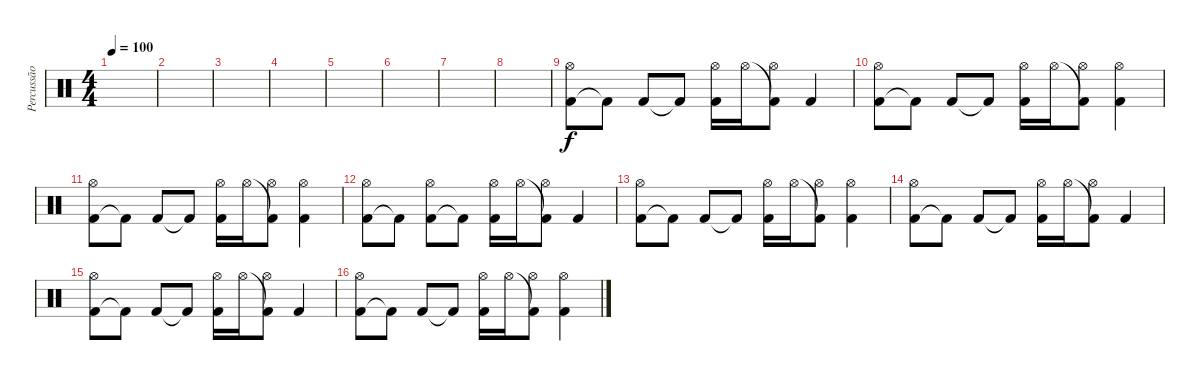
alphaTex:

\track ("Percussão" "Percussão") {instrument percussion}
\staff {score}
\articulation defaults
\ts (4 4)
\tempo 100
\clef neutral
\ks c
|
|
|
|
|
|
|
|
("Kick (hit) 2" "Hi-Hat (open)").8 "Kick (hit) 2"{t}.8 "Kick (hit) 2".8 "Kick (hit) 2"{t}.8 ("Kick (hit) 2" "Hi-Hat (open)").16 "Hi-Hat (open)".16 ("Kick (hit) 2"{t} "Hi-Hat (open)").8 "Kick (hit) 2".4 |
("Kick (hit) 2" "Hi-Hat (open)").8 "Kick (hit) 2"{t}.8 "Kick (hit) 2".8 "Kick (hit) 2"{t}.8 ("Kick (hit) 2" "Hi-Hat (open)").16 "Hi-Hat (open)".16 ("Kick (hit) 2"{t} "Hi-Hat (open)").8 ("Kick (hit) 2" "Hi-Hat (open)").4 |
("Kick (hit) 2" "Hi-Hat (open)").8 "Kick (hit) 2"{t}.8 "Kick (hit) 2".8 "Kick (hit) 2"{t}.8 ("Kick (hit) 2" "Hi-Hat (open)").16 "Hi-Hat (open)".16 ("Kick (hit) 2"{t} "Hi-Hat (open)").8 ("Kick (hit) 2" "Hi-Hat (open)").4 |
("Kick (hit) 2" "Hi-Hat (open)").8 "Kick (hit) 2"{t}.8 ("Kick (hit) 2" "Hi-Hat (open)").8 "Kick (hit) 2"{t}.8 ("Kick (hit) 2" "Hi-Hat (open)").16 "Hi-Hat (open)".16 ("Kick (hit) 2"{t} "Hi-Hat (open)").8 "Kick (hit) 2".4 |
("Kick (hit) 2" "Hi-Hat (open)").8 "Kick (hit) 2"{t}.8 "Kick (hit) 2".8 "Kick (hit) 2"{t}.8 ("Kick (hit) 2" "Hi-Hat (open)").16 "Hi-Hat (open)".16 ("Kick (hit) 2"{t} "Hi-Hat (open)").8 ("Kick (hit) 2" "Hi-Hat (open)").4 |
("Kick (hit) 2" "Hi-Hat (open)").8 "Kick (hit) 2"{t}.8 "Kick (hit) 2".8 "Kick (hit) 2"{t}.8 ("Kick (hit) 2" "Hi-Hat (open)").16 "Hi-Hat (open)".16 ("Kick (hit) 2"{t} "Hi-Hat (open)").8 "Kick (hit) 2".4 |
("Kick (hit) 2" "Hi-Hat (open)").8 "Kick (hit) 2"{t}.8 "Kick (hit) 2".8 "Kick (hit) 2"{t}.8 ("Kick (hit) 2" "Hi-Hat (open)").16 "Hi-Hat (open)".16 ("Kick (hit) 2"{t} "Hi-Hat (open)").8 "Kick (hit) 2".4 |
("Kick (hit) 2" "Hi-Hat (open)").8 "Kick (hit) 2"{t}.8 "Kick (hit) 2".8 "Kick (hit) 2"{t}.8 ("Kick (hit) 2" "Hi-Hat (open)").16 "Hi-Hat (open)".16 ("Kick (hit) 2"{t} "Hi-Hat (open)").8 ("Kick (hit) 2" "Hi-Hat (open)").4
